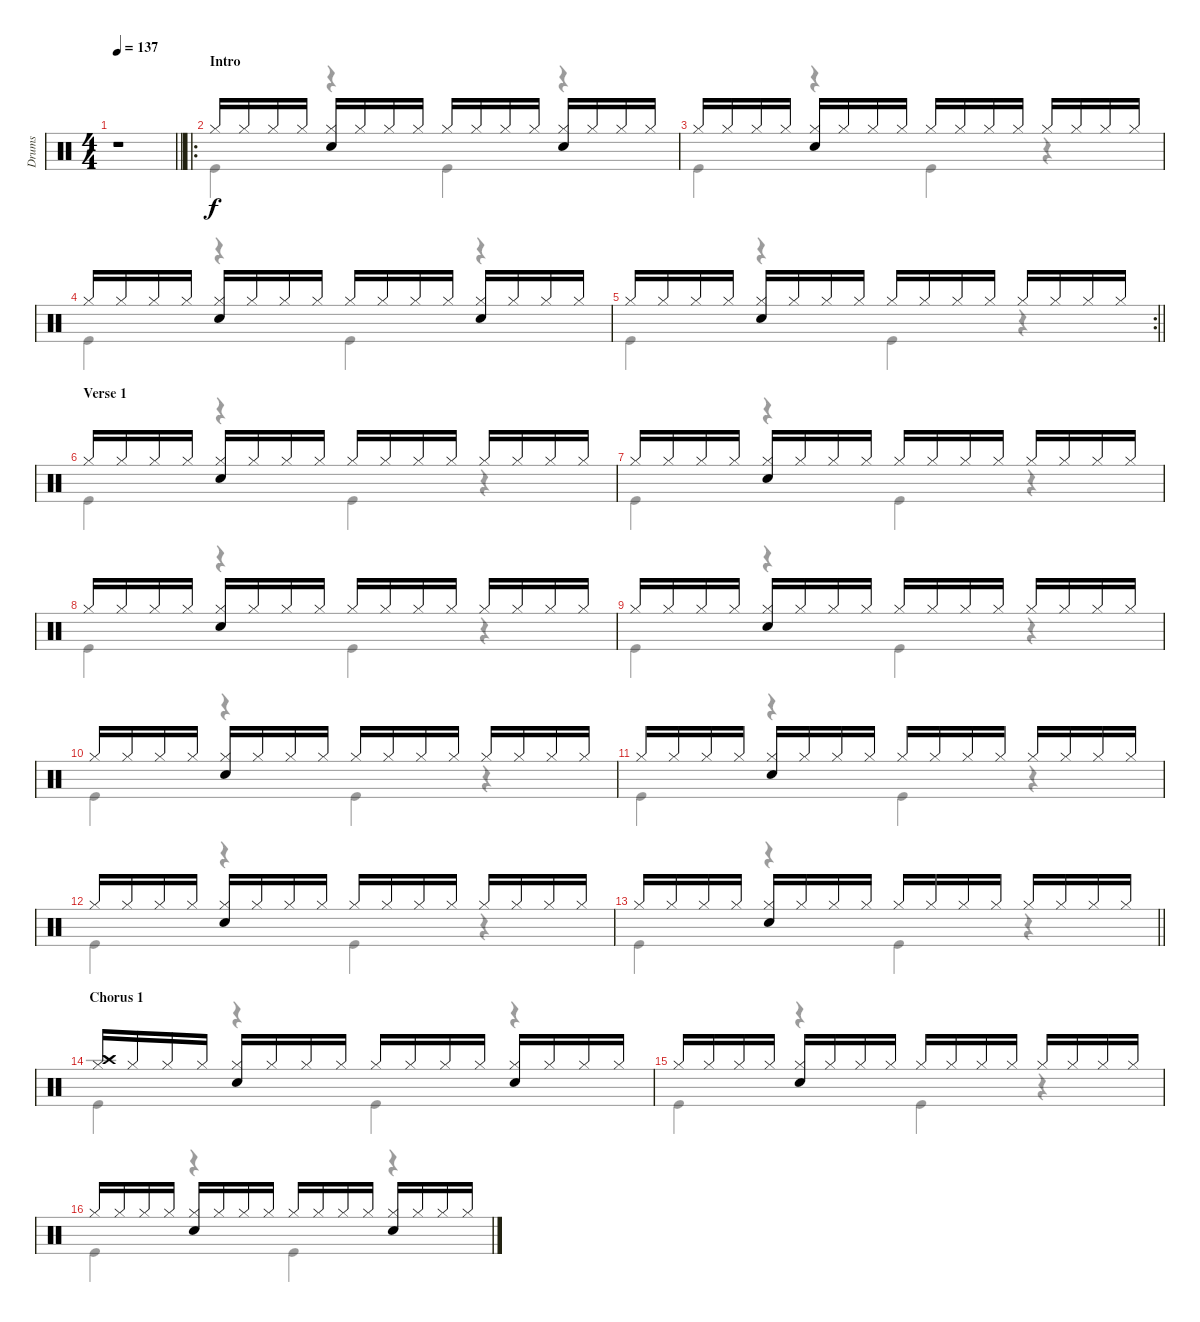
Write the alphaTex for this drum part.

\track ("Drums" "Drums") {instrument percussion}
\staff {score}
\articulation defaults
\voice
\ts (4 4)
\tempo 137
\clef neutral
\barLineRight lightlight
\ks c
r.1{dy f} |
\ro
\section ("" "Intro")
"Hi-Hat (closed)".16 "Hi-Hat (closed)".16 "Hi-Hat (closed)".16 "Hi-Hat (closed)".16 ("Hi-Hat (closed)" "Snare (hit) 2").16 "Hi-Hat (closed)".16 "Hi-Hat (closed)".16 "Hi-Hat (closed)".16 "Hi-Hat (closed)".16 "Hi-Hat (closed)".16 "Hi-Hat (closed)".16 "Hi-Hat (closed)".16 ("Hi-Hat (closed)" "Hand Clap (hit)").16 "Hi-Hat (closed)".16 "Hi-Hat (closed)".16 "Hi-Hat (closed)".16 |
"Hi-Hat (closed)".16 "Hi-Hat (closed)".16 "Hi-Hat (closed)".16 "Hi-Hat (closed)".16 ("Hi-Hat (closed)" "Snare (hit) 2").16 "Hi-Hat (closed)".16 "Hi-Hat (closed)".16 "Hi-Hat (closed)".16 "Hi-Hat (closed)".16 "Hi-Hat (closed)".16 "Hi-Hat (closed)".16 "Hi-Hat (closed)".16 "Hi-Hat (closed)".16 "Hi-Hat (closed)".16 "Hi-Hat (closed)".16 "Hi-Hat (closed)".16 |
"Hi-Hat (closed)".16 "Hi-Hat (closed)".16 "Hi-Hat (closed)".16 "Hi-Hat (closed)".16 ("Hi-Hat (closed)" "Snare (hit) 2").16 "Hi-Hat (closed)".16 "Hi-Hat (closed)".16 "Hi-Hat (closed)".16 "Hi-Hat (closed)".16 "Hi-Hat (closed)".16 "Hi-Hat (closed)".16 "Hi-Hat (closed)".16 ("Hi-Hat (closed)" "Hand Clap (hit)").16 "Hi-Hat (closed)".16 "Hi-Hat (closed)".16 "Hi-Hat (closed)".16 |
\rc 2
\barLineRight lightlight "Hi-Hat (closed)".16 "Hi-Hat (closed)".16 "Hi-Hat (closed)".16 "Hi-Hat (closed)".16
("Hi-Hat (closed)" "Snare (hit) 2").16 "Hi-Hat (closed)".16 "Hi-Hat (closed)".16 "Hi-Hat (closed)".16 "Hi-Hat (closed)".16 "Hi-Hat (closed)".16 "Hi-Hat (closed)".16 "Hi-Hat (closed)".16 "Hi-Hat (closed)".16 "Hi-Hat (closed)".16 "Hi-Hat (closed)".16 "Hi-Hat (closed)".16 |
\section ("" "Verse 1")
"Hi-Hat (closed)".16 "Hi-Hat (closed)".16 "Hi-Hat (closed)".16 "Hi-Hat (closed)".16 ("Hi-Hat (closed)" "Snare (hit) 2").16 "Hi-Hat (closed)".16 "Hi-Hat (closed)".16 "Hi-Hat (closed)".16 "Hi-Hat (closed)".16 "Hi-Hat (closed)".16 "Hi-Hat (closed)".16 "Hi-Hat (closed)".16 "Hi-Hat (closed)".16 "Hi-Hat (closed)".16 "Hi-Hat (closed)".16 "Hi-Hat (closed)".16 |
"Hi-Hat (closed)".16 "Hi-Hat (closed)".16 "Hi-Hat (closed)".16 "Hi-Hat (closed)".16 ("Hi-Hat (closed)" "Snare (hit) 2").16 "Hi-Hat (closed)".16 "Hi-Hat (closed)".16 "Hi-Hat (closed)".16 "Hi-Hat (closed)".16 "Hi-Hat (closed)".16 "Hi-Hat (closed)".16 "Hi-Hat (closed)".16 "Hi-Hat (closed)".16 "Hi-Hat (closed)".16 "Hi-Hat (closed)".16 "Hi-Hat (closed)".16 |
"Hi-Hat (closed)".16 "Hi-Hat (closed)".16 "Hi-Hat (closed)".16 "Hi-Hat (closed)".16 ("Hi-Hat (closed)" "Snare (hit) 2").16 "Hi-Hat (closed)".16 "Hi-Hat (closed)".16 "Hi-Hat (closed)".16 "Hi-Hat (closed)".16 "Hi-Hat (closed)".16 "Hi-Hat (closed)".16 "Hi-Hat (closed)".16 "Hi-Hat (closed)".16 "Hi-Hat (closed)".16 "Hi-Hat (closed)".16 "Hi-Hat (closed)".16 |
"Hi-Hat (closed)".16 "Hi-Hat (closed)".16 "Hi-Hat (closed)".16 "Hi-Hat (closed)".16 ("Hi-Hat (closed)" "Snare (hit) 2").16 "Hi-Hat (closed)".16 "Hi-Hat (closed)".16 "Hi-Hat (closed)".16 "Hi-Hat (closed)".16 "Hi-Hat (closed)".16 "Hi-Hat (closed)".16 "Hi-Hat (closed)".16 "Hi-Hat (closed)".16 "Hi-Hat (closed)".16 "Hi-Hat (closed)".16 "Hi-Hat (closed)".16 |
"Hi-Hat (closed)".16 "Hi-Hat (closed)".16 "Hi-Hat (closed)".16 "Hi-Hat (closed)".16 ("Hi-Hat (closed)" "Snare (hit) 2").16 "Hi-Hat (closed)".16 "Hi-Hat (closed)".16 "Hi-Hat (closed)".16 "Hi-Hat (closed)".16 "Hi-Hat (closed)".16 "Hi-Hat (closed)".16 "Hi-Hat (closed)".16 "Hi-Hat (closed)".16 "Hi-Hat (closed)".16 "Hi-Hat (closed)".16 "Hi-Hat (closed)".16 |
"Hi-Hat (closed)".16 "Hi-Hat (closed)".16 "Hi-Hat (closed)".16 "Hi-Hat (closed)".16 ("Hi-Hat (closed)" "Snare (hit) 2").16 "Hi-Hat (closed)".16 "Hi-Hat (closed)".16 "Hi-Hat (closed)".16 "Hi-Hat (closed)".16 "Hi-Hat (closed)".16 "Hi-Hat (closed)".16 "Hi-Hat (closed)".16 "Hi-Hat (closed)".16 "Hi-Hat (closed)".16 "Hi-Hat (closed)".16 "Hi-Hat (closed)".16 |
"Hi-Hat (closed)".16 "Hi-Hat (closed)".16 "Hi-Hat (closed)".16 "Hi-Hat (closed)".16 ("Hi-Hat (closed)" "Snare (hit) 2").16 "Hi-Hat (closed)".16 "Hi-Hat (closed)".16 "Hi-Hat (closed)".16 "Hi-Hat (closed)".16 "Hi-Hat (closed)".16 "Hi-Hat (closed)".16 "Hi-Hat (closed)".16 "Hi-Hat (closed)".16 "Hi-Hat (closed)".16 "Hi-Hat (closed)".16 "Hi-Hat (closed)".16 |
\barLineRight lightlight "Hi-Hat (closed)".16 "Hi-Hat (closed)".16 "Hi-Hat (closed)".16 "Hi-Hat (closed)".16
("Hi-Hat (closed)" "Snare (hit) 2").16 "Hi-Hat (closed)".16 "Hi-Hat (closed)".16 "Hi-Hat (closed)".16 "Hi-Hat (closed)".16 "Hi-Hat (closed)".16 "Hi-Hat (closed)".16 "Hi-Hat (closed)".16 "Hi-Hat (closed)".16 "Hi-Hat (closed)".16 "Hi-Hat (closed)".16 "Hi-Hat (closed)".16 |
\section ("" "Chorus 1")
("Hi-Hat (closed)" "Crash high (hit)").16 "Hi-Hat (closed)".16 "Hi-Hat (closed)".16 "Hi-Hat (closed)".16 ("Hi-Hat (closed)" "Snare (hit) 2").16 "Hi-Hat (closed)".16 "Hi-Hat (closed)".16 "Hi-Hat (closed)".16 "Hi-Hat (closed)".16 "Hi-Hat (closed)".16 "Hi-Hat (closed)".16 "Hi-Hat (closed)".16 ("Hi-Hat (closed)" "Hand Clap (hit)").16 "Hi-Hat (closed)".16 "Hi-Hat (closed)".16 "Hi-Hat (closed)".16 |
"Hi-Hat (closed)".16 "Hi-Hat (closed)".16 "Hi-Hat (closed)".16 "Hi-Hat (closed)".16 ("Hi-Hat (closed)" "Snare (hit) 2").16 "Hi-Hat (closed)".16 "Hi-Hat (closed)".16 "Hi-Hat (closed)".16 "Hi-Hat (closed)".16 "Hi-Hat (closed)".16 "Hi-Hat (closed)".16 "Hi-Hat (closed)".16 "Hi-Hat (closed)".16 "Hi-Hat (closed)".16 "Hi-Hat (closed)".16 "Hi-Hat (closed)".16 |
"Hi-Hat (closed)".16 "Hi-Hat (closed)".16 "Hi-Hat (closed)".16 "Hi-Hat (closed)".16 ("Hi-Hat (closed)" "Snare (hit) 2").16 "Hi-Hat (closed)".16 "Hi-Hat (closed)".16 "Hi-Hat (closed)".16 "Hi-Hat (closed)".16 "Hi-Hat (closed)".16 "Hi-Hat (closed)".16 "Hi-Hat (closed)".16 ("Hi-Hat (closed)" "Hand Clap (hit)").16 "Hi-Hat (closed)".16 "Hi-Hat (closed)".16 "Hi-Hat (closed)".16
\voice
\clef neutral
\ottava regular
\simile none
\barLineRight lightlight
\ks c
|
"Kick (hit)".4 r.4 "Kick (hit)".4 r.4 |
"Kick (hit)".4 r.4 "Kick (hit)".4 r.4 |
"Kick (hit)".4 r.4 "Kick (hit)".4 r.4 |
\barLineRight lightlight "Kick (hit)".4
r.4 "Kick (hit)".4 r.4 |
"Kick (hit)".4 r.4 "Kick (hit)".4 r.4 |
"Kick (hit)".4 r.4 "Kick (hit)".4 r.4 |
"Kick (hit)".4 r.4 "Kick (hit)".4 r.4 |
"Kick (hit)".4 r.4 "Kick (hit)".4 r.4 |
"Kick (hit)".4 r.4 "Kick (hit)".4 r.4 |
"Kick (hit)".4 r.4 "Kick (hit)".4 r.4 |
"Kick (hit)".4 r.4 "Kick (hit)".4 r.4 |
\barLineRight lightlight "Kick (hit)".4
r.4 "Kick (hit)".4 r.4 |
"Kick (hit)".4 r.4 "Kick (hit)".4 r.4 |
"Kick (hit)".4 r.4 "Kick (hit)".4 r.4 |
"Kick (hit)".4 r.4 "Kick (hit)".4 r.4
